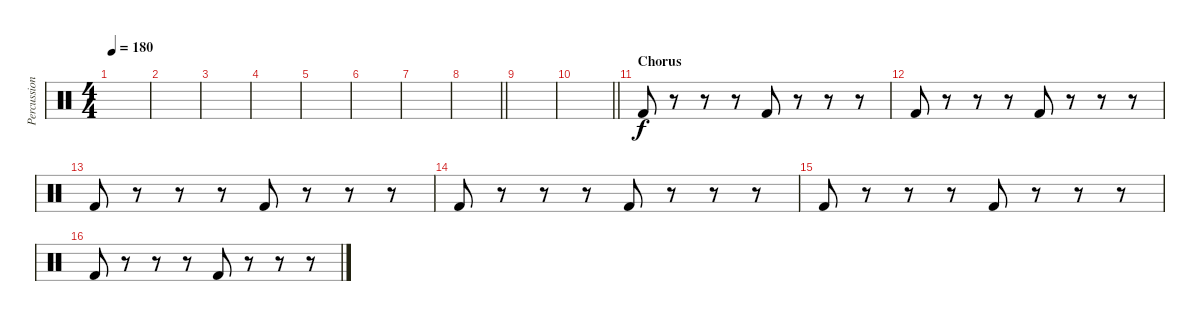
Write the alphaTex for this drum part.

\track ("Percussion" "Percussion") {instrument percussion}
\staff {score}
\articulation defaults
\ts (4 4)
\tempo 180
\clef neutral
\ks c
|
|
|
|
|
|
|
\barLineRight lightlight
|
|
\barLineRight lightlight
|
\section ("" "Chorus")
"Kick (hit) 2".8 r.8 r.8 r.8 "Kick (hit) 2".8 r.8 r.8 r.8 |
"Kick (hit) 2".8 r.8 r.8 r.8 "Kick (hit) 2".8 r.8 r.8 r.8 |
"Kick (hit) 2".8 r.8 r.8 r.8 "Kick (hit) 2".8 r.8 r.8 r.8 |
"Kick (hit) 2".8 r.8 r.8 r.8 "Kick (hit) 2".8 r.8 r.8 r.8 |
"Kick (hit) 2".8 r.8 r.8 r.8 "Kick (hit) 2".8 r.8 r.8 r.8 |
"Kick (hit) 2".8 r.8 r.8 r.8 "Kick (hit) 2".8 r.8 r.8 r.8
